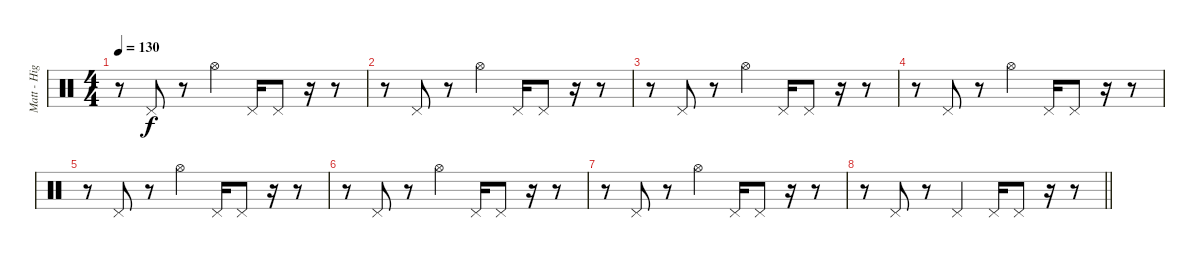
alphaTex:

\track ("Matt - High Hat" "Matt - Hig") {instrument percussion}
\staff {score}
\articulation defaults
\ts (4 4)
\tempo 130
\clef neutral
\ks c
r.8{dy f} "Pedal Hi-Hat (hit)".8 r.8 "Hi-Hat (open)".4 "Pedal Hi-Hat (hit)".16 "Pedal Hi-Hat (hit)".8 r.16 r.8 |
r.8 "Pedal Hi-Hat (hit)".8 r.8 "Hi-Hat (open)".4 "Pedal Hi-Hat (hit)".16 "Pedal Hi-Hat (hit)".8 r.16 r.8 |
r.8 "Pedal Hi-Hat (hit)".8 r.8 "Hi-Hat (open)".4 "Pedal Hi-Hat (hit)".16 "Pedal Hi-Hat (hit)".8 r.16 r.8 |
r.8 "Pedal Hi-Hat (hit)".8 r.8 "Hi-Hat (open)".4 "Pedal Hi-Hat (hit)".16 "Pedal Hi-Hat (hit)".8 r.16 r.8 |
r.8 "Pedal Hi-Hat (hit)".8 r.8 "Hi-Hat (open)".4 "Pedal Hi-Hat (hit)".16 "Pedal Hi-Hat (hit)".8 r.16 r.8 |
r.8 "Pedal Hi-Hat (hit)".8 r.8 "Hi-Hat (open)".4 "Pedal Hi-Hat (hit)".16 "Pedal Hi-Hat (hit)".8 r.16 r.8 |
r.8 "Pedal Hi-Hat (hit)".8 r.8 "Hi-Hat (open)".4 "Pedal Hi-Hat (hit)".16 "Pedal Hi-Hat (hit)".8 r.16 r.8 |
\barLineRight lightlight
r.8 "Pedal Hi-Hat (hit)".8 r.8 "Pedal Hi-Hat (hit)".4 "Pedal Hi-Hat (hit)".16 "Pedal Hi-Hat (hit)".8 r.16 r.8
